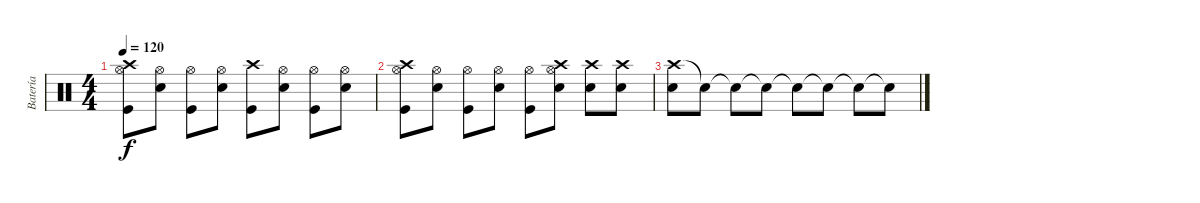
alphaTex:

\track ("Batería" "Batería") {instrument percussion}
\staff {score}
\articulation defaults
\ts (4 4)
\tempo 120
\clef neutral
\ks c
("Crash high (hit)" "Hi-Hat (open)" "Kick (hit)").8{dy f} ("Hi-Hat (open)" "Electric Snare (hit)").8 ("Hi-Hat (open)" "Kick (hit)").8 ("Hi-Hat (open)" "Electric Snare (hit)").8 ("Crash high (hit)" "Kick (hit)").8 ("Hi-Hat (open)" "Electric Snare (hit)").8 ("Hi-Hat (open)" "Kick (hit)").8 ("Hi-Hat (open)" "Electric Snare (hit)").8 |
("Crash high (hit)" "Hi-Hat (open)" "Kick (hit)").8 ("Hi-Hat (open)" "Electric Snare (hit)").8 ("Hi-Hat (open)" "Kick (hit)").8 ("Hi-Hat (open)" "Electric Snare (hit)").8 ("Hi-Hat (open)" "Kick (hit)").8 ("Crash high (hit)" "Hi-Hat (open)" "Electric Snare (hit)").8 ("Crash high (hit)" "Electric Snare (hit)").8 ("Crash high (hit)" "Electric Snare (hit)").8 |
("Crash high (hit)" "Electric Snare (hit)").8 "Snare (hit)"{t}.8 "Snare (hit)"{t}.8 "Snare (hit)"{t}.8 "Snare (hit)"{t}.8 "Snare (hit)"{t}.8 "Snare (hit)"{t}.8 "Snare (hit)"{t}.8
